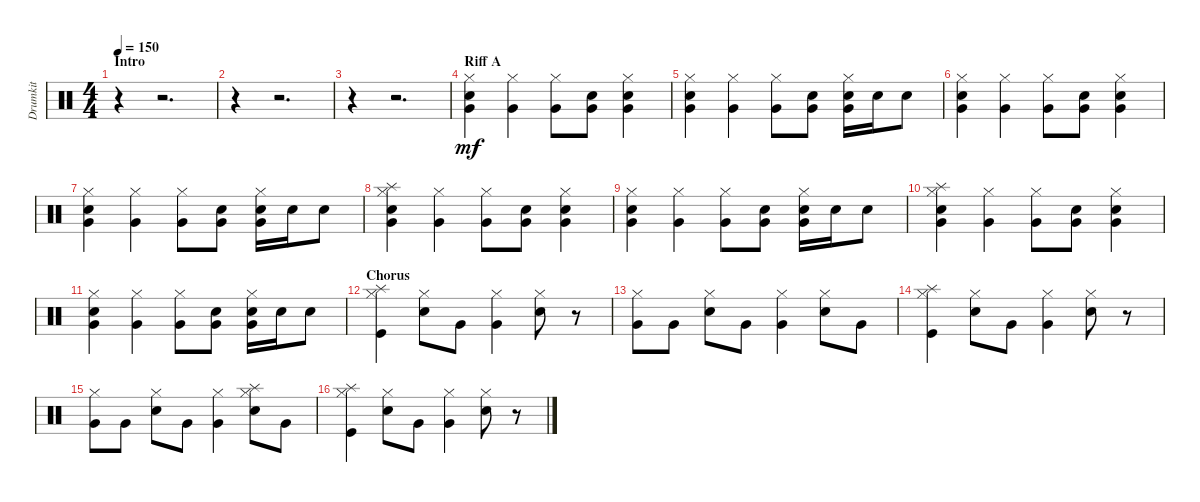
\track ("Drumkit" "Drumkit") {instrument percussion}
\staff {score}
\articulation defaults
\ts (4 4)
\section ("" "Intro")
\tempo 150
\clef neutral
\ks c
r.4{dy mf} r.2{d} |
r.4 r.2{d} |
r.4 r.2{d} |
\section ("" "Riff A")
("Very Low Tom (hit)" "Snare (hit) 2" "Hi-Hat (closed)").4 ("Very Low Tom (hit)" "Hi-Hat (closed)").4 ("Very Low Tom (hit)" "Hi-Hat (closed)").8 ("Very Low Tom (hit)" "Snare (hit) 2").8 ("Very Low Tom (hit)" "Snare (hit) 2" "Hi-Hat (closed)").4 |
("Very Low Tom (hit)" "Snare (hit) 2" "Hi-Hat (closed)").4 ("Very Low Tom (hit)" "Hi-Hat (closed)").4 ("Very Low Tom (hit)" "Hi-Hat (closed)").8 ("Very Low Tom (hit)" "Snare (hit) 2").8 ("Very Low Tom (hit)" "Snare (hit) 2" "Hi-Hat (closed)").16 "Snare (hit) 2".16 "Snare (hit) 2".8 |
("Very Low Tom (hit)" "Snare (hit) 2" "Hi-Hat (closed)").4 ("Very Low Tom (hit)" "Hi-Hat (closed)").4 ("Very Low Tom (hit)" "Hi-Hat (closed)").8 ("Very Low Tom (hit)" "Snare (hit) 2").8 ("Very Low Tom (hit)" "Snare (hit) 2" "Hi-Hat (closed)").4 |
("Very Low Tom (hit)" "Snare (hit) 2" "Hi-Hat (closed)").4 ("Very Low Tom (hit)" "Hi-Hat (closed)").4 ("Very Low Tom (hit)" "Hi-Hat (closed)").8 ("Very Low Tom (hit)" "Snare (hit) 2").8 ("Very Low Tom (hit)" "Snare (hit) 2" "Hi-Hat (closed)").16 "Snare (hit) 2".16 "Snare (hit) 2".8 |
("Very Low Tom (hit)" "Snare (hit) 2" "Splash (hit)" "Hi-Hat (closed)").4 ("Very Low Tom (hit)" "Hi-Hat (closed)").4 ("Very Low Tom (hit)" "Hi-Hat (closed)").8 ("Very Low Tom (hit)" "Snare (hit) 2").8 ("Very Low Tom (hit)" "Snare (hit) 2" "Hi-Hat (closed)").4 |
("Very Low Tom (hit)" "Snare (hit) 2" "Hi-Hat (closed)").4 ("Very Low Tom (hit)" "Hi-Hat (closed)").4 ("Very Low Tom (hit)" "Hi-Hat (closed)").8 ("Very Low Tom (hit)" "Snare (hit) 2").8 ("Very Low Tom (hit)" "Snare (hit) 2" "Hi-Hat (closed)").16 "Snare (hit) 2".16 "Snare (hit) 2".8 |
("Very Low Tom (hit)" "Snare (hit) 2" "Splash (hit)" "Hi-Hat (closed)").4 ("Very Low Tom (hit)" "Hi-Hat (closed)").4 ("Very Low Tom (hit)" "Hi-Hat (closed)").8 ("Very Low Tom (hit)" "Snare (hit) 2").8 ("Very Low Tom (hit)" "Snare (hit) 2" "Hi-Hat (closed)").4 |
("Very Low Tom (hit)" "Snare (hit) 2" "Hi-Hat (closed)").4 ("Very Low Tom (hit)" "Hi-Hat (closed)").4 ("Very Low Tom (hit)" "Hi-Hat (closed)").8 ("Very Low Tom (hit)" "Snare (hit) 2").8 ("Very Low Tom (hit)" "Snare (hit) 2" "Hi-Hat (closed)").16 "Snare (hit) 2".16 "Snare (hit) 2".8 |
\section ("" "Chorus")
("Splash (hit)" "Kick (hit)" "Hi-Hat (closed)").4 ("Snare (hit) 2" "Hi-Hat (closed)").8 "Very Low Tom (hit)".8 ("Very Low Tom (hit)" "Hi-Hat (closed)").4 ("Snare (hit) 2" "Hi-Hat (closed)").8 r.8 |
("Hi-Hat (closed)" "Very Low Tom (hit)").8 "Very Low Tom (hit)".8 ("Snare (hit) 2" "Hi-Hat (closed)").8 "Very Low Tom (hit)".8 ("Very Low Tom (hit)" "Hi-Hat (closed)").4 ("Snare (hit) 2" "Hi-Hat (closed)").8 "Very Low Tom (hit)".8 |
("Splash (hit)" "Kick (hit)" "Hi-Hat (closed)").4 ("Snare (hit) 2" "Hi-Hat (closed)").8 "Very Low Tom (hit)".8 ("Very Low Tom (hit)" "Hi-Hat (closed)").4 ("Snare (hit) 2" "Hi-Hat (closed)").8 r.8 |
("Hi-Hat (closed)" "Very Low Tom (hit)").8 "Very Low Tom (hit)".8 ("Snare (hit) 2" "Hi-Hat (closed)").8 "Very Low Tom (hit)".8 ("Very Low Tom (hit)" "Hi-Hat (closed)").4 ("Snare (hit) 2" "Hi-Hat (closed)" "Splash (hit)").8 "Very Low Tom (hit)".8 |
("Splash (hit)" "Kick (hit)" "Hi-Hat (closed)").4 ("Snare (hit) 2" "Hi-Hat (closed)").8 "Very Low Tom (hit)".8 ("Very Low Tom (hit)" "Hi-Hat (closed)").4 ("Snare (hit) 2" "Hi-Hat (closed)").8 r.8
